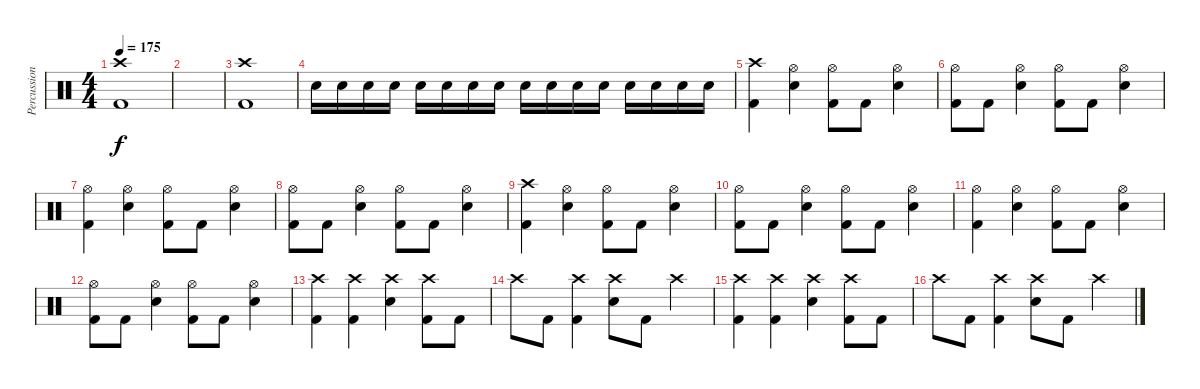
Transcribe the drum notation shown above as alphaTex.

\track ("Percussion" "Percussion") {instrument percussion}
\staff {score}
\articulation defaults
\ts (4 4)
\tempo 175
\clef neutral
\ks c
("Crash high (hit)" "Kick (hit) 2").1{dy f} |
|
("Crash high (hit)" "Kick (hit) 2").1 |
"Snare (hit) 2".16 "Snare (hit) 2".16 "Snare (hit) 2".16 "Snare (hit) 2".16 "Snare (hit) 2".16 "Snare (hit) 2".16 "Snare (hit) 2".16 "Snare (hit) 2".16 "Snare (hit) 2".16 "Snare (hit) 2".16 "Snare (hit) 2".16 "Snare (hit) 2".16 "Snare (hit) 2".16 "Snare (hit) 2".16 "Snare (hit) 2".16 "Snare (hit) 2".16 |
("Crash high (hit)" "Kick (hit) 2").4 ("Hi-Hat (open)" "Electric Snare (hit)").4 ("Hi-Hat (open)" "Kick (hit) 2").8 "Kick (hit) 2".8 ("Hi-Hat (open)" "Electric Snare (hit)").4 |
("Hi-Hat (open)" "Kick (hit) 2").8 "Kick (hit) 2".8 ("Hi-Hat (open)" "Electric Snare (hit)").4 ("Hi-Hat (open)" "Kick (hit) 2").8 "Kick (hit) 2".8 ("Hi-Hat (open)" "Electric Snare (hit)").4 |
("Hi-Hat (open)" "Kick (hit) 2").4 ("Hi-Hat (open)" "Electric Snare (hit)").4 ("Hi-Hat (open)" "Kick (hit) 2").8 "Kick (hit) 2".8 ("Hi-Hat (open)" "Electric Snare (hit)").4 |
("Hi-Hat (open)" "Kick (hit) 2").8 "Kick (hit) 2".8 ("Hi-Hat (open)" "Electric Snare (hit)").4 ("Hi-Hat (open)" "Kick (hit) 2").8 "Kick (hit) 2".8 ("Hi-Hat (open)" "Electric Snare (hit)").4 |
("Crash high (hit)" "Kick (hit) 2").4 ("Hi-Hat (open)" "Electric Snare (hit)").4 ("Hi-Hat (open)" "Kick (hit) 2").8 "Kick (hit) 2".8 ("Hi-Hat (open)" "Electric Snare (hit)").4 |
("Hi-Hat (open)" "Kick (hit) 2").8 "Kick (hit) 2".8 ("Hi-Hat (open)" "Electric Snare (hit)").4 ("Hi-Hat (open)" "Kick (hit) 2").8 "Kick (hit) 2".8 ("Hi-Hat (open)" "Electric Snare (hit)").4 |
("Hi-Hat (open)" "Kick (hit) 2").4 ("Hi-Hat (open)" "Electric Snare (hit)").4 ("Hi-Hat (open)" "Kick (hit) 2").8 "Kick (hit) 2".8 ("Hi-Hat (open)" "Electric Snare (hit)").4 |
("Hi-Hat (open)" "Kick (hit) 2").8 "Kick (hit) 2".8 ("Hi-Hat (open)" "Electric Snare (hit)").4 ("Hi-Hat (open)" "Kick (hit) 2").8 "Kick (hit) 2".8 ("Hi-Hat (open)" "Electric Snare (hit)").4 |
("Crash high (hit)" "Kick (hit) 2").4 ("Crash high (hit)" "Kick (hit) 2").4 ("Crash high (hit)" "Snare (hit) 2").4 ("Crash high (hit)" "Kick (hit) 2").8 "Kick (hit) 2".8 |
"Crash high (hit)".8 "Kick (hit) 2".8 ("Crash high (hit)" "Kick (hit) 2").4 ("Crash high (hit)" "Snare (hit) 2").8 "Kick (hit) 2".8 "Crash high (hit)".4 |
("Crash high (hit)" "Kick (hit) 2").4 ("Crash high (hit)" "Kick (hit) 2").4 ("Crash high (hit)" "Snare (hit) 2").4 ("Crash high (hit)" "Kick (hit) 2").8 "Kick (hit) 2".8 |
"Crash high (hit)".8 "Kick (hit) 2".8 ("Crash high (hit)" "Kick (hit) 2").4 ("Crash high (hit)" "Snare (hit) 2").8 "Kick (hit) 2".8 "Crash high (hit)".4
